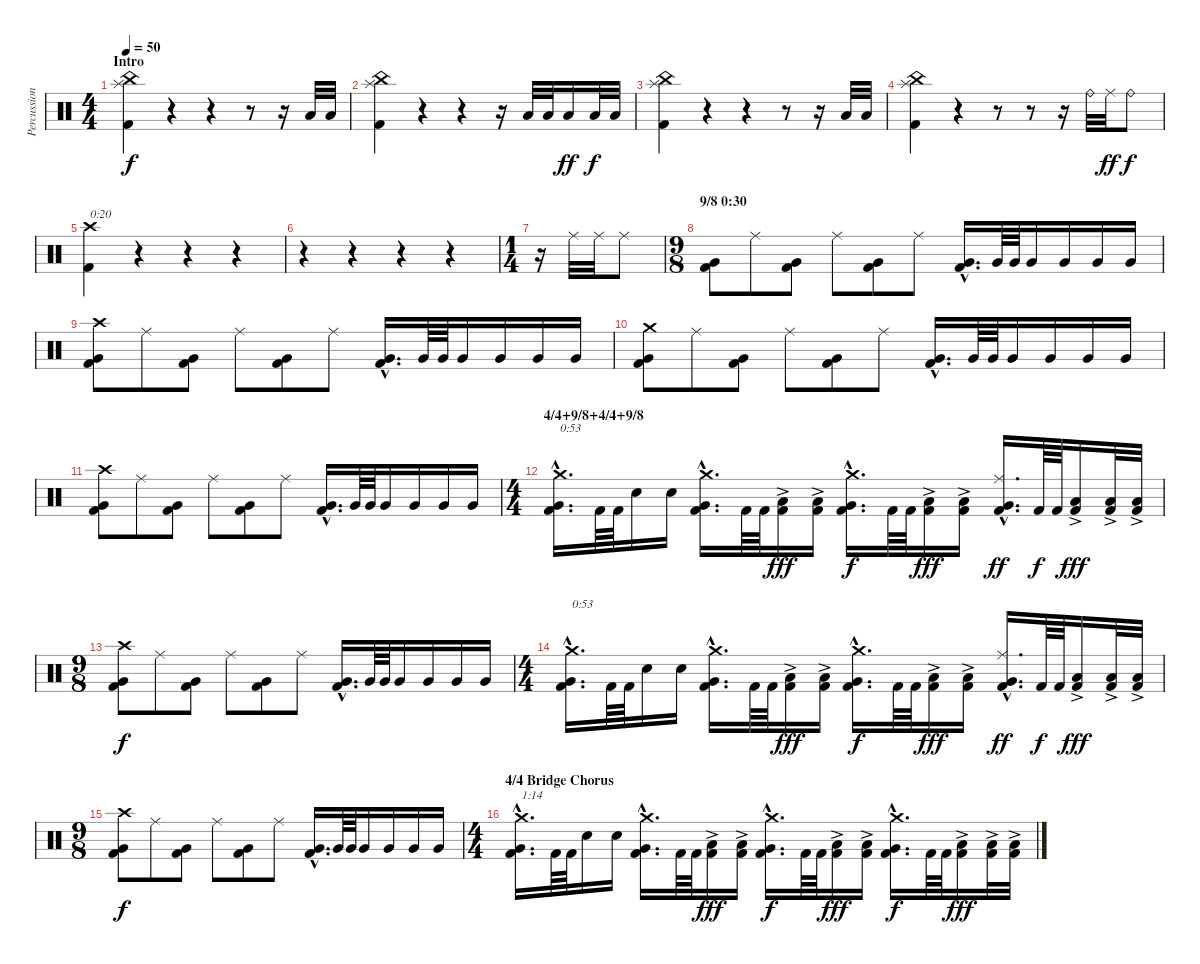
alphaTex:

\track ("Percussion" "Percussion") {instrument percussion}
\staff {score}
\articulation defaults
\ts (4 4)
\section ("" "Intro")
\tempo 50
\clef neutral
\ks c
("Kick (hit) 2" "Splash (hit)" "China (hit)").4{dy f} r.4 r.4 r.8 r.16 "Low Floor Tom (hit)".32 "Low Floor Tom (hit)".32 |
("Kick (hit) 2" "Splash (hit)" "China (hit)").4 r.4 r.4 r.16 "Low Floor Tom (hit)".32 "Low Floor Tom (hit)".32 "Low Floor Tom (hit)".16{dy ff} "Low Floor Tom (hit)".32{dy f} "Low Floor Tom (hit)".32 |
("Kick (hit) 2" "Splash (hit)" "China (hit)").4 r.4 r.4 r.8 r.16 "Low Floor Tom (hit)".32 "Low Floor Tom (hit)".32 |
("Kick (hit) 2" "Splash (hit)" "China (hit)").4 r.4 r.8 r.8 r.16 "Ride (bell)".32 "Ride (middle)".32{dy ff} "Ride (bell)".8{dy f} |
("Kick (hit) 2" "Crash high (hit)").4{txt "0:20"} r.4 r.4 r.4 |
r.4 r.4 r.4 r.4 |
\ts (1 4)
r.16 "Ride (middle)".32 "Ride (middle)".32 "Ride (middle)".8 |
\ts (9 8)
\section ("" "9/8 0:30")
("Kick (hit) 2" "Very Low Tom (hit)").8 "Ride (middle)".8 ("Kick (hit) 2" "Very Low Tom (hit)").8 "Ride (middle)".8 ("Kick (hit) 2" "Very Low Tom (hit)").8 "Ride (middle)".8 ("Kick (hit) 2"{hac} "Very Low Tom (hit)"{hac}).16{d} "Very Low Tom (hit)".64 "Very Low Tom (hit)".64 "Very Low Tom (hit)".16 "Very Low Tom (hit)".16 "Very Low Tom (hit)".16 "Very Low Tom (hit)".16 |
("Kick (hit) 2" "Very Low Tom (hit)" "Crash high (hit)").8 "Ride (middle)".8 ("Kick (hit) 2" "Very Low Tom (hit)").8 "Ride (middle)".8 ("Kick (hit) 2" "Very Low Tom (hit)").8 "Ride (middle)".8 ("Kick (hit) 2"{hac} "Very Low Tom (hit)"{hac}).16{d} "Very Low Tom (hit)".64 "Very Low Tom (hit)".64 "Very Low Tom (hit)".16 "Very Low Tom (hit)".16 "Very Low Tom (hit)".16 "Very Low Tom (hit)".16 |
("Kick (hit) 2" "Very Low Tom (hit)" "Crash medium (hit)").8 "Ride (middle)".8 ("Kick (hit) 2" "Very Low Tom (hit)").8 "Ride (middle)".8 ("Kick (hit) 2" "Very Low Tom (hit)").8 "Ride (middle)".8 ("Kick (hit) 2"{hac} "Very Low Tom (hit)"{hac}).16{d} "Very Low Tom (hit)".64 "Very Low Tom (hit)".64 "Very Low Tom (hit)".16 "Very Low Tom (hit)".16 "Very Low Tom (hit)".16 "Very Low Tom (hit)".16 |
("Kick (hit) 2" "Very Low Tom (hit)" "Crash high (hit)").8 "Ride (middle)".8 ("Kick (hit) 2" "Very Low Tom (hit)").8 "Ride (middle)".8 ("Kick (hit) 2" "Very Low Tom (hit)").8 "Ride (middle)".8 ("Kick (hit) 2"{hac} "Very Low Tom (hit)"{hac}).16{d} "Very Low Tom (hit)".64 "Very Low Tom (hit)".64 "Very Low Tom (hit)".16 "Very Low Tom (hit)".16 "Very Low Tom (hit)".16 "Very Low Tom (hit)".16 |
\ts (4 4)
\section ("" "4/4+9/8+4/4+9/8")
("Kick (hit) 2"{hac} "Very Low Tom (hit)"{hac} "Crash medium (hit)"{hac}).16{d txt "0:53"} "Kick (hit) 2".64 "Kick (hit) 2".64 "Electric Snare (hit)".16 "Electric Snare (hit)".16 ("Kick (hit) 2"{hac} "Very Low Tom (hit)"{hac} "Crash medium (hit)"{hac}).16{d} "Kick (hit) 2".64 "Kick (hit) 2".64 ("Kick (hit) 2" "Low Tom (hit)"{ac}).16{dy fff} ("Kick (hit) 2" "Low Tom (hit)"{ac}).16 ("Kick (hit) 2"{hac} "Very Low Tom (hit)"{hac} "Crash medium (hit)"{hac}).16{d dy f} "Kick (hit) 2".64 "Kick (hit) 2".64 ("Kick (hit) 2" "Low Tom (hit)"{ac}).16{dy fff} ("Kick (hit) 2" "Low Tom (hit)"{ac}).16 ("Kick (hit) 2"{hac} "Very Low Tom (hit)"{hac} "Ride (middle)"{hac}).16{d dy ff} "Kick (hit) 2".64{dy f} "Kick (hit) 2".64 ("Kick (hit) 2" "Low Tom (hit)"{ac}).16{dy fff} ("Kick (hit) 2" "Low Tom (hit)"{ac}).32 ("Kick (hit) 2" "Low Tom (hit)"{ac}).32 |
\ts (9 8)
("Kick (hit) 2" "Very Low Tom (hit)" "Crash high (hit)").8{dy f} "Ride (middle)".8 ("Kick (hit) 2" "Very Low Tom (hit)").8 "Ride (middle)".8 ("Kick (hit) 2" "Very Low Tom (hit)").8 "Ride (middle)".8 ("Kick (hit) 2"{hac} "Very Low Tom (hit)"{hac}).16{d} "Very Low Tom (hit)".64 "Very Low Tom (hit)".64 "Very Low Tom (hit)".16 "Very Low Tom (hit)".16 "Very Low Tom (hit)".16 "Very Low Tom (hit)".16 |
\ts (4 4)
("Kick (hit) 2"{hac} "Very Low Tom (hit)"{hac} "Crash medium (hit)"{hac}).16{d txt "0:53"} "Kick (hit) 2".64 "Kick (hit) 2".64 "Electric Snare (hit)".16 "Electric Snare (hit)".16 ("Kick (hit) 2"{hac} "Very Low Tom (hit)"{hac} "Crash medium (hit)"{hac}).16{d} "Kick (hit) 2".64 "Kick (hit) 2".64 ("Kick (hit) 2" "Low Tom (hit)"{ac}).16{dy fff} ("Kick (hit) 2" "Low Tom (hit)"{ac}).16 ("Kick (hit) 2"{hac} "Very Low Tom (hit)"{hac} "Crash medium (hit)"{hac}).16{d dy f} "Kick (hit) 2".64 "Kick (hit) 2".64 ("Kick (hit) 2" "Low Tom (hit)"{ac}).16{dy fff} ("Kick (hit) 2" "Low Tom (hit)"{ac}).16 ("Kick (hit) 2"{hac} "Very Low Tom (hit)"{hac} "Ride (middle)"{hac}).16{d dy ff} "Kick (hit) 2".64{dy f} "Kick (hit) 2".64 ("Kick (hit) 2" "Low Tom (hit)"{ac}).16{dy fff} ("Kick (hit) 2" "Low Tom (hit)"{ac}).32 ("Kick (hit) 2" "Low Tom (hit)"{ac}).32 |
\ts (9 8)
("Kick (hit) 2" "Very Low Tom (hit)" "Crash high (hit)").8{dy f} "Ride (middle)".8 ("Kick (hit) 2" "Very Low Tom (hit)").8 "Ride (middle)".8 ("Kick (hit) 2" "Very Low Tom (hit)").8 "Ride (middle)".8 ("Kick (hit) 2"{hac} "Very Low Tom (hit)"{hac}).16{d} "Very Low Tom (hit)".64 "Very Low Tom (hit)".64 "Very Low Tom (hit)".16 "Very Low Tom (hit)".16 "Very Low Tom (hit)".16 "Very Low Tom (hit)".16 |
\ts (4 4)
\section ("" "4/4 Bridge Chorus")
("Kick (hit) 2"{hac} "Very Low Tom (hit)"{hac} "Crash medium (hit)"{hac}).16{d txt "1:14"} "Kick (hit) 2".64 "Kick (hit) 2".64 "Electric Snare (hit)".16 "Electric Snare (hit)".16 ("Kick (hit) 2"{hac} "Very Low Tom (hit)"{hac} "Crash medium (hit)"{hac}).16{d} "Kick (hit) 2".64 "Kick (hit) 2".64 ("Kick (hit) 2" "Low Tom (hit)"{ac}).16{dy fff} ("Kick (hit) 2" "Low Tom (hit)"{ac}).16 ("Kick (hit) 2"{hac} "Very Low Tom (hit)"{hac} "Crash medium (hit)"{hac}).16{d dy f} "Kick (hit) 2".64 "Kick (hit) 2".64 ("Kick (hit) 2" "Low Tom (hit)"{ac}).16{dy fff} ("Kick (hit) 2" "Low Tom (hit)"{ac}).16 ("Kick (hit) 2"{hac} "Very Low Tom (hit)"{hac} "Crash medium (hit)"{hac}).16{d dy f} "Kick (hit) 2".64 "Kick (hit) 2".64 ("Kick (hit) 2" "Low Tom (hit)"{ac}).16{dy fff} ("Kick (hit) 2" "Low Tom (hit)"{ac}).32 ("Kick (hit) 2" "Low Tom (hit)"{ac}).32
